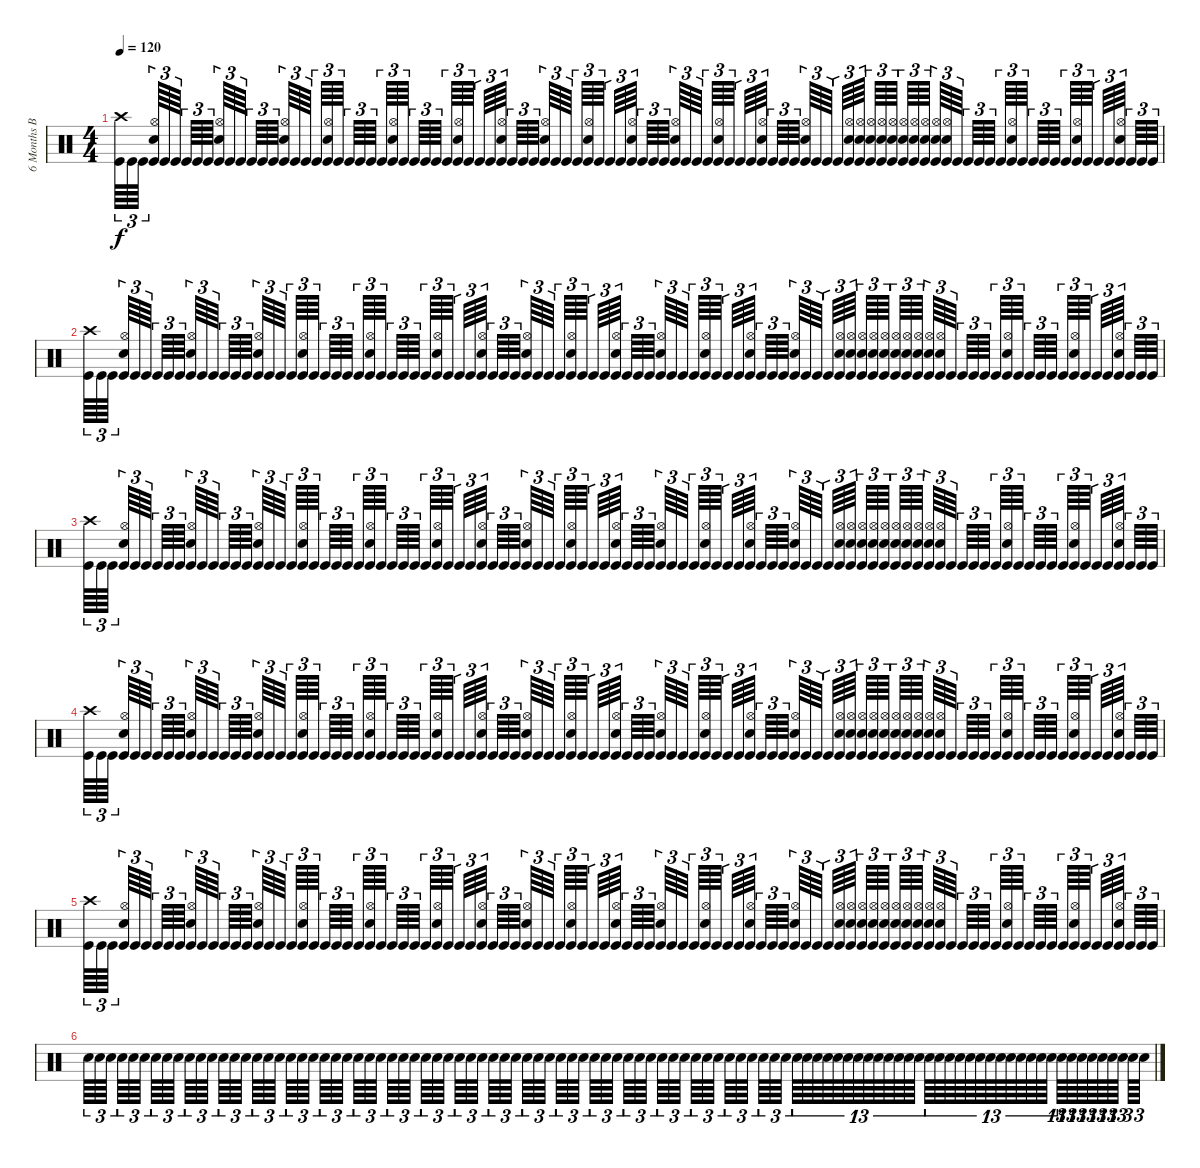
\track ("6 Months Baby" "6 Months B") {instrument percussion}
\staff {score}
\articulation defaults
\ts (4 4)
\tempo 120
\clef neutral
\ks c
("Crash high (hit)" "Kick (hit)").64{tu (3 2) dy f} "Kick (hit)".64{tu (3 2)} "Kick (hit)".64{tu (3 2)} ("Hi-Hat (open)" "Snare (hit) 2" "Kick (hit)").64{tu (3 2)} "Kick (hit)".64{tu (3 2)} "Kick (hit)".64{tu (3 2)} "Kick (hit)".64{tu (3 2)} "Kick (hit)".64{tu (3 2)} "Kick (hit)".64{tu (3 2)} ("Hi-Hat (open)" "Snare (hit) 2" "Kick (hit)").64{tu (3 2)} "Kick (hit)".64{tu (3 2)} "Kick (hit)".64{tu (3 2)} "Kick (hit)".64{tu (3 2)} "Kick (hit)".64{tu (3 2)} "Kick (hit)".64{tu (3 2)} ("Hi-Hat (open)" "Snare (hit) 2" "Kick (hit)").64{tu (3 2)} "Kick (hit)".64{tu (3 2)} "Kick (hit)".64{tu (3 2)} "Kick (hit)".64{tu (3 2)} ("Hi-Hat (open)" "Snare (hit) 2" "Kick (hit)").64{tu (3 2)} "Kick (hit)".64{tu (3 2)} "Kick (hit)".64{tu (3 2)} "Kick (hit)".64{tu (3 2)} "Kick (hit)".64{tu (3 2)} "Kick (hit)".64{tu (3 2)} ("Hi-Hat (open)" "Snare (hit) 2" "Kick (hit)").64{tu (3 2)} "Kick (hit)".64{tu (3 2)} "Kick (hit)".64{tu (3 2)} "Kick (hit)".64{tu (3 2)} "Kick (hit)".64{tu (3 2)} "Kick (hit)".64{tu (3 2)} ("Hi-Hat (open)" "Snare (hit) 2" "Kick (hit)").64{tu (3 2)} "Kick (hit)".64{tu (3 2)} "Kick (hit)".64{tu (3 2)} "Kick (hit)".64{tu (3 2)} ("Hi-Hat (open)" "Snare (hit) 2" "Kick (hit)").64{tu (3 2)} "Kick (hit)".64{tu (3 2)} "Kick (hit)".64{tu (3 2)} "Kick (hit)".64{tu (3 2)} ("Hi-Hat (open)" "Snare (hit) 2" "Kick (hit)").64{tu (3 2)} "Kick (hit)".64{tu (3 2)} "Kick (hit)".64{tu (3 2)} "Kick (hit)".64{tu (3 2)} ("Hi-Hat (open)" "Snare (hit) 2" "Kick (hit)").64{tu (3 2)} "Kick (hit)".64{tu (3 2)} "Kick (hit)".64{tu (3 2)} "Kick (hit)".64{tu (3 2)} ("Hi-Hat (open)" "Snare (hit) 2" "Kick (hit)").64{tu (3 2)} "Kick (hit)".64{tu (3 2)} "Kick (hit)".64{tu (3 2)} "Kick (hit)".64{tu (3 2)} ("Hi-Hat (open)" "Snare (hit) 2" "Kick (hit)").64{tu (3 2)} "Kick (hit)".64{tu (3 2)} "Kick (hit)".64{tu (3 2)} "Kick (hit)".64{tu (3 2)} ("Hi-Hat (open)" "Snare (hit) 2" "Kick (hit)").64{tu (3 2)} "Kick (hit)".64{tu (3 2)} "Kick (hit)".64{tu (3 2)} "Kick (hit)".64{tu (3 2)} ("Hi-Hat (open)" "Snare (hit) 2" "Kick (hit)").64{tu (3 2)} "Kick (hit)".64{tu (3 2)} "Kick (hit)".64{tu (3 2)} "Kick (hit)".64{tu (3 2)} ("Hi-Hat (open)" "Snare (hit) 2" "Kick (hit)").64{tu (3 2)} "Kick (hit)".64{tu (3 2)} "Kick (hit)".64{tu (3 2)} "Kick (hit)".64{tu (3 2)} ("Hi-Hat (open)" "Snare (hit) 2" "Kick (hit)").64{tu (3 2)} ("Hi-Hat (open)" "Snare (hit) 2" "Kick (hit)").64{tu (3 2)} ("Hi-Hat (open)" "Snare (hit) 2" "Kick (hit)").64{tu (3 2)} ("Hi-Hat (open)" "Snare (hit) 2" "Kick (hit)").64{tu (3 2)} ("Hi-Hat (open)" "Snare (hit) 2" "Kick (hit)").64{tu (3 2)} ("Hi-Hat (open)" "Snare (hit) 2" "Kick (hit)").64{tu (3 2)} ("Hi-Hat (open)" "Snare (hit) 2" "Kick (hit)").64{tu (3 2)} ("Hi-Hat (open)" "Snare (hit) 2" "Kick (hit)").64{tu (3 2)} ("Hi-Hat (open)" "Snare (hit) 2" "Kick (hit)").64{tu (3 2)} ("Hi-Hat (open)" "Snare (hit) 2" "Kick (hit)").64{tu (3 2)} "Kick (hit)".64{tu (3 2)} "Kick (hit)".64{tu (3 2)} "Kick (hit)".64{tu (3 2)} "Kick (hit)".64{tu (3 2)} "Kick (hit)".64{tu (3 2)} ("Hi-Hat (open)" "Snare (hit) 2" "Kick (hit)").64{tu (3 2)} "Kick (hit)".64{tu (3 2)} "Kick (hit)".64{tu (3 2)} "Kick (hit)".64{tu (3 2)} "Kick (hit)".64{tu (3 2)} "Kick (hit)".64{tu (3 2)} ("Hi-Hat (open)" "Snare (hit) 2" "Kick (hit)").64{tu (3 2)} "Kick (hit)".64{tu (3 2)} "Kick (hit)".64{tu (3 2)} "Kick (hit)".64{tu (3 2)} ("Hi-Hat (open)" "Snare (hit) 2" "Kick (hit)").64{tu (3 2)} "Kick (hit)".64{tu (3 2)} "Kick (hit)".64{tu (3 2)} "Kick (hit)".64{tu (3 2)} |
("Crash high (hit)" "Kick (hit)").64{tu (3 2)} "Kick (hit)".64{tu (3 2)} "Kick (hit)".64{tu (3 2)} ("Hi-Hat (open)" "Snare (hit) 2" "Kick (hit)").64{tu (3 2)} "Kick (hit)".64{tu (3 2)} "Kick (hit)".64{tu (3 2)} "Kick (hit)".64{tu (3 2)} "Kick (hit)".64{tu (3 2)} "Kick (hit)".64{tu (3 2)} ("Hi-Hat (open)" "Snare (hit) 2" "Kick (hit)").64{tu (3 2)} "Kick (hit)".64{tu (3 2)} "Kick (hit)".64{tu (3 2)} "Kick (hit)".64{tu (3 2)} "Kick (hit)".64{tu (3 2)} "Kick (hit)".64{tu (3 2)} ("Hi-Hat (open)" "Snare (hit) 2" "Kick (hit)").64{tu (3 2)} "Kick (hit)".64{tu (3 2)} "Kick (hit)".64{tu (3 2)} "Kick (hit)".64{tu (3 2)} ("Hi-Hat (open)" "Snare (hit) 2" "Kick (hit)").64{tu (3 2)} "Kick (hit)".64{tu (3 2)} "Kick (hit)".64{tu (3 2)} "Kick (hit)".64{tu (3 2)} "Kick (hit)".64{tu (3 2)} "Kick (hit)".64{tu (3 2)} ("Hi-Hat (open)" "Snare (hit) 2" "Kick (hit)").64{tu (3 2)} "Kick (hit)".64{tu (3 2)} "Kick (hit)".64{tu (3 2)} "Kick (hit)".64{tu (3 2)} "Kick (hit)".64{tu (3 2)} "Kick (hit)".64{tu (3 2)} ("Hi-Hat (open)" "Snare (hit) 2" "Kick (hit)").64{tu (3 2)} "Kick (hit)".64{tu (3 2)} "Kick (hit)".64{tu (3 2)} "Kick (hit)".64{tu (3 2)} ("Hi-Hat (open)" "Snare (hit) 2" "Kick (hit)").64{tu (3 2)} "Kick (hit)".64{tu (3 2)} "Kick (hit)".64{tu (3 2)} "Kick (hit)".64{tu (3 2)} ("Hi-Hat (open)" "Snare (hit) 2" "Kick (hit)").64{tu (3 2)} "Kick (hit)".64{tu (3 2)} "Kick (hit)".64{tu (3 2)} "Kick (hit)".64{tu (3 2)} ("Hi-Hat (open)" "Snare (hit) 2" "Kick (hit)").64{tu (3 2)} "Kick (hit)".64{tu (3 2)} "Kick (hit)".64{tu (3 2)} "Kick (hit)".64{tu (3 2)} ("Hi-Hat (open)" "Snare (hit) 2" "Kick (hit)").64{tu (3 2)} "Kick (hit)".64{tu (3 2)} "Kick (hit)".64{tu (3 2)} "Kick (hit)".64{tu (3 2)} ("Hi-Hat (open)" "Snare (hit) 2" "Kick (hit)").64{tu (3 2)} "Kick (hit)".64{tu (3 2)} "Kick (hit)".64{tu (3 2)} "Kick (hit)".64{tu (3 2)} ("Hi-Hat (open)" "Snare (hit) 2" "Kick (hit)").64{tu (3 2)} "Kick (hit)".64{tu (3 2)} "Kick (hit)".64{tu (3 2)} "Kick (hit)".64{tu (3 2)} ("Hi-Hat (open)" "Snare (hit) 2" "Kick (hit)").64{tu (3 2)} "Kick (hit)".64{tu (3 2)} "Kick (hit)".64{tu (3 2)} "Kick (hit)".64{tu (3 2)} ("Hi-Hat (open)" "Snare (hit) 2" "Kick (hit)").64{tu (3 2)} "Kick (hit)".64{tu (3 2)} "Kick (hit)".64{tu (3 2)} "Kick (hit)".64{tu (3 2)} ("Hi-Hat (open)" "Snare (hit) 2" "Kick (hit)").64{tu (3 2)} ("Hi-Hat (open)" "Snare (hit) 2" "Kick (hit)").64{tu (3 2)} ("Hi-Hat (open)" "Snare (hit) 2" "Kick (hit)").64{tu (3 2)} ("Hi-Hat (open)" "Snare (hit) 2" "Kick (hit)").64{tu (3 2)} ("Hi-Hat (open)" "Snare (hit) 2" "Kick (hit)").64{tu (3 2)} ("Hi-Hat (open)" "Snare (hit) 2" "Kick (hit)").64{tu (3 2)} ("Hi-Hat (open)" "Snare (hit) 2" "Kick (hit)").64{tu (3 2)} ("Hi-Hat (open)" "Snare (hit) 2" "Kick (hit)").64{tu (3 2)} ("Hi-Hat (open)" "Snare (hit) 2" "Kick (hit)").64{tu (3 2)} ("Hi-Hat (open)" "Snare (hit) 2" "Kick (hit)").64{tu (3 2)} "Kick (hit)".64{tu (3 2)} "Kick (hit)".64{tu (3 2)} "Kick (hit)".64{tu (3 2)} "Kick (hit)".64{tu (3 2)} "Kick (hit)".64{tu (3 2)} ("Hi-Hat (open)" "Snare (hit) 2" "Kick (hit)").64{tu (3 2)} "Kick (hit)".64{tu (3 2)} "Kick (hit)".64{tu (3 2)} "Kick (hit)".64{tu (3 2)} "Kick (hit)".64{tu (3 2)} "Kick (hit)".64{tu (3 2)} ("Hi-Hat (open)" "Snare (hit) 2" "Kick (hit)").64{tu (3 2)} "Kick (hit)".64{tu (3 2)} "Kick (hit)".64{tu (3 2)} "Kick (hit)".64{tu (3 2)} ("Hi-Hat (open)" "Snare (hit) 2" "Kick (hit)").64{tu (3 2)} "Kick (hit)".64{tu (3 2)} "Kick (hit)".64{tu (3 2)} "Kick (hit)".64{tu (3 2)} |
("Crash high (hit)" "Kick (hit)").64{tu (3 2)} "Kick (hit)".64{tu (3 2)} "Kick (hit)".64{tu (3 2)} ("Hi-Hat (open)" "Snare (hit) 2" "Kick (hit)").64{tu (3 2)} "Kick (hit)".64{tu (3 2)} "Kick (hit)".64{tu (3 2)} "Kick (hit)".64{tu (3 2)} "Kick (hit)".64{tu (3 2)} "Kick (hit)".64{tu (3 2)} ("Hi-Hat (open)" "Snare (hit) 2" "Kick (hit)").64{tu (3 2)} "Kick (hit)".64{tu (3 2)} "Kick (hit)".64{tu (3 2)} "Kick (hit)".64{tu (3 2)} "Kick (hit)".64{tu (3 2)} "Kick (hit)".64{tu (3 2)} ("Hi-Hat (open)" "Snare (hit) 2" "Kick (hit)").64{tu (3 2)} "Kick (hit)".64{tu (3 2)} "Kick (hit)".64{tu (3 2)} "Kick (hit)".64{tu (3 2)} ("Hi-Hat (open)" "Snare (hit) 2" "Kick (hit)").64{tu (3 2)} "Kick (hit)".64{tu (3 2)} "Kick (hit)".64{tu (3 2)} "Kick (hit)".64{tu (3 2)} "Kick (hit)".64{tu (3 2)} "Kick (hit)".64{tu (3 2)} ("Hi-Hat (open)" "Snare (hit) 2" "Kick (hit)").64{tu (3 2)} "Kick (hit)".64{tu (3 2)} "Kick (hit)".64{tu (3 2)} "Kick (hit)".64{tu (3 2)} "Kick (hit)".64{tu (3 2)} "Kick (hit)".64{tu (3 2)} ("Hi-Hat (open)" "Snare (hit) 2" "Kick (hit)").64{tu (3 2)} "Kick (hit)".64{tu (3 2)} "Kick (hit)".64{tu (3 2)} "Kick (hit)".64{tu (3 2)} ("Hi-Hat (open)" "Snare (hit) 2" "Kick (hit)").64{tu (3 2)} "Kick (hit)".64{tu (3 2)} "Kick (hit)".64{tu (3 2)} "Kick (hit)".64{tu (3 2)} ("Hi-Hat (open)" "Snare (hit) 2" "Kick (hit)").64{tu (3 2)} "Kick (hit)".64{tu (3 2)} "Kick (hit)".64{tu (3 2)} "Kick (hit)".64{tu (3 2)} ("Hi-Hat (open)" "Snare (hit) 2" "Kick (hit)").64{tu (3 2)} "Kick (hit)".64{tu (3 2)} "Kick (hit)".64{tu (3 2)} "Kick (hit)".64{tu (3 2)} ("Hi-Hat (open)" "Snare (hit) 2" "Kick (hit)").64{tu (3 2)} "Kick (hit)".64{tu (3 2)} "Kick (hit)".64{tu (3 2)} "Kick (hit)".64{tu (3 2)} ("Hi-Hat (open)" "Snare (hit) 2" "Kick (hit)").64{tu (3 2)} "Kick (hit)".64{tu (3 2)} "Kick (hit)".64{tu (3 2)} "Kick (hit)".64{tu (3 2)} ("Hi-Hat (open)" "Snare (hit) 2" "Kick (hit)").64{tu (3 2)} "Kick (hit)".64{tu (3 2)} "Kick (hit)".64{tu (3 2)} "Kick (hit)".64{tu (3 2)} ("Hi-Hat (open)" "Snare (hit) 2" "Kick (hit)").64{tu (3 2)} "Kick (hit)".64{tu (3 2)} "Kick (hit)".64{tu (3 2)} "Kick (hit)".64{tu (3 2)} ("Hi-Hat (open)" "Snare (hit) 2" "Kick (hit)").64{tu (3 2)} "Kick (hit)".64{tu (3 2)} "Kick (hit)".64{tu (3 2)} "Kick (hit)".64{tu (3 2)} ("Hi-Hat (open)" "Snare (hit) 2" "Kick (hit)").64{tu (3 2)} ("Hi-Hat (open)" "Snare (hit) 2" "Kick (hit)").64{tu (3 2)} ("Hi-Hat (open)" "Snare (hit) 2" "Kick (hit)").64{tu (3 2)} ("Hi-Hat (open)" "Snare (hit) 2" "Kick (hit)").64{tu (3 2)} ("Hi-Hat (open)" "Snare (hit) 2" "Kick (hit)").64{tu (3 2)} ("Hi-Hat (open)" "Snare (hit) 2" "Kick (hit)").64{tu (3 2)} ("Hi-Hat (open)" "Snare (hit) 2" "Kick (hit)").64{tu (3 2)} ("Hi-Hat (open)" "Snare (hit) 2" "Kick (hit)").64{tu (3 2)} ("Hi-Hat (open)" "Snare (hit) 2" "Kick (hit)").64{tu (3 2)} ("Hi-Hat (open)" "Snare (hit) 2" "Kick (hit)").64{tu (3 2)} "Kick (hit)".64{tu (3 2)} "Kick (hit)".64{tu (3 2)} "Kick (hit)".64{tu (3 2)} "Kick (hit)".64{tu (3 2)} "Kick (hit)".64{tu (3 2)} ("Hi-Hat (open)" "Snare (hit) 2" "Kick (hit)").64{tu (3 2)} "Kick (hit)".64{tu (3 2)} "Kick (hit)".64{tu (3 2)} "Kick (hit)".64{tu (3 2)} "Kick (hit)".64{tu (3 2)} "Kick (hit)".64{tu (3 2)} ("Hi-Hat (open)" "Snare (hit) 2" "Kick (hit)").64{tu (3 2)} "Kick (hit)".64{tu (3 2)} "Kick (hit)".64{tu (3 2)} "Kick (hit)".64{tu (3 2)} ("Hi-Hat (open)" "Snare (hit) 2" "Kick (hit)").64{tu (3 2)} "Kick (hit)".64{tu (3 2)} "Kick (hit)".64{tu (3 2)} "Kick (hit)".64{tu (3 2)} |
("Crash high (hit)" "Kick (hit)").64{tu (3 2)} "Kick (hit)".64{tu (3 2)} "Kick (hit)".64{tu (3 2)} ("Hi-Hat (open)" "Snare (hit) 2" "Kick (hit)").64{tu (3 2)} "Kick (hit)".64{tu (3 2)} "Kick (hit)".64{tu (3 2)} "Kick (hit)".64{tu (3 2)} "Kick (hit)".64{tu (3 2)} "Kick (hit)".64{tu (3 2)} ("Hi-Hat (open)" "Snare (hit) 2" "Kick (hit)").64{tu (3 2)} "Kick (hit)".64{tu (3 2)} "Kick (hit)".64{tu (3 2)} "Kick (hit)".64{tu (3 2)} "Kick (hit)".64{tu (3 2)} "Kick (hit)".64{tu (3 2)} ("Hi-Hat (open)" "Snare (hit) 2" "Kick (hit)").64{tu (3 2)} "Kick (hit)".64{tu (3 2)} "Kick (hit)".64{tu (3 2)} "Kick (hit)".64{tu (3 2)} ("Hi-Hat (open)" "Snare (hit) 2" "Kick (hit)").64{tu (3 2)} "Kick (hit)".64{tu (3 2)} "Kick (hit)".64{tu (3 2)} "Kick (hit)".64{tu (3 2)} "Kick (hit)".64{tu (3 2)} "Kick (hit)".64{tu (3 2)} ("Hi-Hat (open)" "Snare (hit) 2" "Kick (hit)").64{tu (3 2)} "Kick (hit)".64{tu (3 2)} "Kick (hit)".64{tu (3 2)} "Kick (hit)".64{tu (3 2)} "Kick (hit)".64{tu (3 2)} "Kick (hit)".64{tu (3 2)} ("Hi-Hat (open)" "Snare (hit) 2" "Kick (hit)").64{tu (3 2)} "Kick (hit)".64{tu (3 2)} "Kick (hit)".64{tu (3 2)} "Kick (hit)".64{tu (3 2)} ("Hi-Hat (open)" "Snare (hit) 2" "Kick (hit)").64{tu (3 2)} "Kick (hit)".64{tu (3 2)} "Kick (hit)".64{tu (3 2)} "Kick (hit)".64{tu (3 2)} ("Hi-Hat (open)" "Snare (hit) 2" "Kick (hit)").64{tu (3 2)} "Kick (hit)".64{tu (3 2)} "Kick (hit)".64{tu (3 2)} "Kick (hit)".64{tu (3 2)} ("Hi-Hat (open)" "Snare (hit) 2" "Kick (hit)").64{tu (3 2)} "Kick (hit)".64{tu (3 2)} "Kick (hit)".64{tu (3 2)} "Kick (hit)".64{tu (3 2)} ("Hi-Hat (open)" "Snare (hit) 2" "Kick (hit)").64{tu (3 2)} "Kick (hit)".64{tu (3 2)} "Kick (hit)".64{tu (3 2)} "Kick (hit)".64{tu (3 2)} ("Hi-Hat (open)" "Snare (hit) 2" "Kick (hit)").64{tu (3 2)} "Kick (hit)".64{tu (3 2)} "Kick (hit)".64{tu (3 2)} "Kick (hit)".64{tu (3 2)} ("Hi-Hat (open)" "Snare (hit) 2" "Kick (hit)").64{tu (3 2)} "Kick (hit)".64{tu (3 2)} "Kick (hit)".64{tu (3 2)} "Kick (hit)".64{tu (3 2)} ("Hi-Hat (open)" "Snare (hit) 2" "Kick (hit)").64{tu (3 2)} "Kick (hit)".64{tu (3 2)} "Kick (hit)".64{tu (3 2)} "Kick (hit)".64{tu (3 2)} ("Hi-Hat (open)" "Snare (hit) 2" "Kick (hit)").64{tu (3 2)} "Kick (hit)".64{tu (3 2)} "Kick (hit)".64{tu (3 2)} "Kick (hit)".64{tu (3 2)} ("Hi-Hat (open)" "Snare (hit) 2" "Kick (hit)").64{tu (3 2)} ("Hi-Hat (open)" "Snare (hit) 2" "Kick (hit)").64{tu (3 2)} ("Hi-Hat (open)" "Snare (hit) 2" "Kick (hit)").64{tu (3 2)} ("Hi-Hat (open)" "Snare (hit) 2" "Kick (hit)").64{tu (3 2)} ("Hi-Hat (open)" "Snare (hit) 2" "Kick (hit)").64{tu (3 2)} ("Hi-Hat (open)" "Snare (hit) 2" "Kick (hit)").64{tu (3 2)} ("Hi-Hat (open)" "Snare (hit) 2" "Kick (hit)").64{tu (3 2)} ("Hi-Hat (open)" "Snare (hit) 2" "Kick (hit)").64{tu (3 2)} ("Hi-Hat (open)" "Snare (hit) 2" "Kick (hit)").64{tu (3 2)} ("Hi-Hat (open)" "Snare (hit) 2" "Kick (hit)").64{tu (3 2)} "Kick (hit)".64{tu (3 2)} "Kick (hit)".64{tu (3 2)} "Kick (hit)".64{tu (3 2)} "Kick (hit)".64{tu (3 2)} "Kick (hit)".64{tu (3 2)} ("Hi-Hat (open)" "Snare (hit) 2" "Kick (hit)").64{tu (3 2)} "Kick (hit)".64{tu (3 2)} "Kick (hit)".64{tu (3 2)} "Kick (hit)".64{tu (3 2)} "Kick (hit)".64{tu (3 2)} "Kick (hit)".64{tu (3 2)} ("Hi-Hat (open)" "Snare (hit) 2" "Kick (hit)").64{tu (3 2)} "Kick (hit)".64{tu (3 2)} "Kick (hit)".64{tu (3 2)} "Kick (hit)".64{tu (3 2)} ("Hi-Hat (open)" "Snare (hit) 2" "Kick (hit)").64{tu (3 2)} "Kick (hit)".64{tu (3 2)} "Kick (hit)".64{tu (3 2)} "Kick (hit)".64{tu (3 2)} |
("Crash high (hit)" "Kick (hit)").64{tu (3 2)} "Kick (hit)".64{tu (3 2)} "Kick (hit)".64{tu (3 2)} ("Hi-Hat (open)" "Snare (hit) 2" "Kick (hit)").64{tu (3 2)} "Kick (hit)".64{tu (3 2)} "Kick (hit)".64{tu (3 2)} "Kick (hit)".64{tu (3 2)} "Kick (hit)".64{tu (3 2)} "Kick (hit)".64{tu (3 2)} ("Hi-Hat (open)" "Snare (hit) 2" "Kick (hit)").64{tu (3 2)} "Kick (hit)".64{tu (3 2)} "Kick (hit)".64{tu (3 2)} "Kick (hit)".64{tu (3 2)} "Kick (hit)".64{tu (3 2)} "Kick (hit)".64{tu (3 2)} ("Hi-Hat (open)" "Snare (hit) 2" "Kick (hit)").64{tu (3 2)} "Kick (hit)".64{tu (3 2)} "Kick (hit)".64{tu (3 2)} "Kick (hit)".64{tu (3 2)} ("Hi-Hat (open)" "Snare (hit) 2" "Kick (hit)").64{tu (3 2)} "Kick (hit)".64{tu (3 2)} "Kick (hit)".64{tu (3 2)} "Kick (hit)".64{tu (3 2)} "Kick (hit)".64{tu (3 2)} "Kick (hit)".64{tu (3 2)} ("Hi-Hat (open)" "Snare (hit) 2" "Kick (hit)").64{tu (3 2)} "Kick (hit)".64{tu (3 2)} "Kick (hit)".64{tu (3 2)} "Kick (hit)".64{tu (3 2)} "Kick (hit)".64{tu (3 2)} "Kick (hit)".64{tu (3 2)} ("Hi-Hat (open)" "Snare (hit) 2" "Kick (hit)").64{tu (3 2)} "Kick (hit)".64{tu (3 2)} "Kick (hit)".64{tu (3 2)} "Kick (hit)".64{tu (3 2)} ("Hi-Hat (open)" "Snare (hit) 2" "Kick (hit)").64{tu (3 2)} "Kick (hit)".64{tu (3 2)} "Kick (hit)".64{tu (3 2)} "Kick (hit)".64{tu (3 2)} ("Hi-Hat (open)" "Snare (hit) 2" "Kick (hit)").64{tu (3 2)} "Kick (hit)".64{tu (3 2)} "Kick (hit)".64{tu (3 2)} "Kick (hit)".64{tu (3 2)} ("Hi-Hat (open)" "Snare (hit) 2" "Kick (hit)").64{tu (3 2)} "Kick (hit)".64{tu (3 2)} "Kick (hit)".64{tu (3 2)} "Kick (hit)".64{tu (3 2)} ("Hi-Hat (open)" "Snare (hit) 2" "Kick (hit)").64{tu (3 2)} "Kick (hit)".64{tu (3 2)} "Kick (hit)".64{tu (3 2)} "Kick (hit)".64{tu (3 2)} ("Hi-Hat (open)" "Snare (hit) 2" "Kick (hit)").64{tu (3 2)} "Kick (hit)".64{tu (3 2)} "Kick (hit)".64{tu (3 2)} "Kick (hit)".64{tu (3 2)} ("Hi-Hat (open)" "Snare (hit) 2" "Kick (hit)").64{tu (3 2)} "Kick (hit)".64{tu (3 2)} "Kick (hit)".64{tu (3 2)} "Kick (hit)".64{tu (3 2)} ("Hi-Hat (open)" "Snare (hit) 2" "Kick (hit)").64{tu (3 2)} "Kick (hit)".64{tu (3 2)} "Kick (hit)".64{tu (3 2)} "Kick (hit)".64{tu (3 2)} ("Hi-Hat (open)" "Snare (hit) 2" "Kick (hit)").64{tu (3 2)} "Kick (hit)".64{tu (3 2)} "Kick (hit)".64{tu (3 2)} "Kick (hit)".64{tu (3 2)} ("Hi-Hat (open)" "Snare (hit) 2" "Kick (hit)").64{tu (3 2)} ("Hi-Hat (open)" "Snare (hit) 2" "Kick (hit)").64{tu (3 2)} ("Hi-Hat (open)" "Snare (hit) 2" "Kick (hit)").64{tu (3 2)} ("Hi-Hat (open)" "Snare (hit) 2" "Kick (hit)").64{tu (3 2)} ("Hi-Hat (open)" "Snare (hit) 2" "Kick (hit)").64{tu (3 2)} ("Hi-Hat (open)" "Snare (hit) 2" "Kick (hit)").64{tu (3 2)} ("Hi-Hat (open)" "Snare (hit) 2" "Kick (hit)").64{tu (3 2)} ("Hi-Hat (open)" "Snare (hit) 2" "Kick (hit)").64{tu (3 2)} ("Hi-Hat (open)" "Snare (hit) 2" "Kick (hit)").64{tu (3 2)} ("Hi-Hat (open)" "Snare (hit) 2" "Kick (hit)").64{tu (3 2)} "Kick (hit)".64{tu (3 2)} "Kick (hit)".64{tu (3 2)} "Kick (hit)".64{tu (3 2)} "Kick (hit)".64{tu (3 2)} "Kick (hit)".64{tu (3 2)} ("Hi-Hat (open)" "Snare (hit) 2" "Kick (hit)").64{tu (3 2)} "Kick (hit)".64{tu (3 2)} "Kick (hit)".64{tu (3 2)} "Kick (hit)".64{tu (3 2)} "Kick (hit)".64{tu (3 2)} "Kick (hit)".64{tu (3 2)} ("Hi-Hat (open)" "Snare (hit) 2" "Kick (hit)").64{tu (3 2)} "Kick (hit)".64{tu (3 2)} "Kick (hit)".64{tu (3 2)} "Kick (hit)".64{tu (3 2)} ("Hi-Hat (open)" "Snare (hit) 2" "Kick (hit)").64{tu (3 2)} "Kick (hit)".64{tu (3 2)} "Kick (hit)".64{tu (3 2)} "Kick (hit)".64{tu (3 2)} |
"Snare (hit) 2".64{tu (3 2)} "Snare (hit) 2".64{tu (3 2)} "Snare (hit) 2".64{tu (3 2)} "Snare (hit) 2".64{tu (3 2)} "Snare (hit) 2".64{tu (3 2)} "Snare (hit) 2".64{tu (3 2)} "Snare (hit) 2".64{tu (3 2)} "Snare (hit) 2".64{tu (3 2)} "Snare (hit) 2".64{tu (3 2)} "Snare (hit) 2".64{tu (3 2)} "Snare (hit) 2".64{tu (3 2)} "Snare (hit) 2".64{tu (3 2)} "Snare (hit) 2".64{tu (3 2)} "Snare (hit) 2".64{tu (3 2)} "Snare (hit) 2".64{tu (3 2)} "Snare (hit) 2".64{tu (3 2)} "Snare (hit) 2".64{tu (3 2)} "Snare (hit) 2".64{tu (3 2)} "Snare (hit) 2".64{tu (3 2)} "Snare (hit) 2".64{tu (3 2)} "Snare (hit) 2".64{tu (3 2)} "Snare (hit) 2".64{tu (3 2)} "Snare (hit) 2".64{tu (3 2)} "Snare (hit) 2".64{tu (3 2)} "Snare (hit) 2".64{tu (3 2)} "Snare (hit) 2".64{tu (3 2)} "Snare (hit) 2".64{tu (3 2)} "Snare (hit) 2".64{tu (3 2)} "Snare (hit) 2".64{tu (3 2)} "Snare (hit) 2".64{tu (3 2)} "Snare (hit) 2".64{tu (3 2)} "Snare (hit) 2".64{tu (3 2)} "Snare (hit) 2".64{tu (3 2)} "Snare (hit) 2".64{tu (3 2)} "Snare (hit) 2".64{tu (3 2)} "Snare (hit) 2".64{tu (3 2)} "Snare (hit) 2".64{tu (3 2)} "Snare (hit) 2".64{tu (3 2)} "Snare (hit) 2".64{tu (3 2)} "Snare (hit) 2".64{tu (3 2)} "Snare (hit) 2".64{tu (3 2)} "Snare (hit) 2".64{tu (3 2)} "Snare (hit) 2".64{tu (3 2)} "Snare (hit) 2".64{tu (3 2)} "Snare (hit) 2".64{tu (3 2)} "Snare (hit) 2".64{tu (3 2)} "Snare (hit) 2".64{tu (3 2)} "Snare (hit) 2".64{tu (3 2)} "Snare (hit) 2".64{tu (3 2)} "Snare (hit) 2".64{tu (3 2)} "Snare (hit) 2".64{tu (3 2)} "Snare (hit) 2".64{tu (3 2)} "Snare (hit) 2".64{tu (3 2)} "Snare (hit) 2".64{tu (3 2)} "Snare (hit) 2".64{tu (3 2)} "Snare (hit) 2".64{tu (3 2)} "Snare (hit) 2".64{tu (3 2)} "Snare (hit) 2".64{tu (3 2)} "Snare (hit) 2".64{tu (3 2)} "Snare (hit) 2".64{tu (3 2)} "Snare (hit) 2".64{tu (3 2)} "Snare (hit) 2".64{tu (3 2)} "Snare (hit) 2".64{tu (3 2)} "Snare (hit) 2".64{tu (13 8)} "Snare (hit) 2".64{tu (13 8)} "Snare (hit) 2".64{tu (13 8)} "Snare (hit) 2".64{tu (13 8)} "Snare (hit) 2".64{tu (13 8)} "Snare (hit) 2".64{tu (13 8)} "Snare (hit) 2".64{tu (13 8)} "Snare (hit) 2".64{tu (13 8)} "Snare (hit) 2".64{tu (13 8)} "Snare (hit) 2".64{tu (13 8)} "Snare (hit) 2".64{tu (13 8)} "Snare (hit) 2".64{tu (13 8)} "Snare (hit) 2".64{tu (13 8)} "Snare (hit) 2".64{tu (13 8)} "Snare (hit) 2".64{tu (13 8)} "Snare (hit) 2".64{tu (13 8)} "Snare (hit) 2".64{tu (13 8)} "Snare (hit) 2".64{tu (13 8)} "Snare (hit) 2".64{tu (13 8)} "Snare (hit) 2".64{tu (13 8)} "Snare (hit) 2".64{tu (13 8)} "Snare (hit) 2".64{tu (13 8)} "Snare (hit) 2".64{tu (13 8)} "Snare (hit) 2".64{tu (13 8)} "Snare (hit) 2".64{tu (13 8)} "Snare (hit) 2".64{tu (13 8)} "Snare (hit) 2".64{tu (13 8)} "Snare (hit) 2".64{tu (13 8)} "Snare (hit) 2".64{tu (13 8)} "Snare (hit) 2".64{tu (13 8)} "Snare (hit) 2".64{tu (13 8)} "Snare (hit) 2".64{tu (13 8)} "Snare (hit) 2".64{tu (13 8)} "Snare (hit) 2".64{tu (3 2)} "Snare (hit) 2".64{tu (3 2)}
